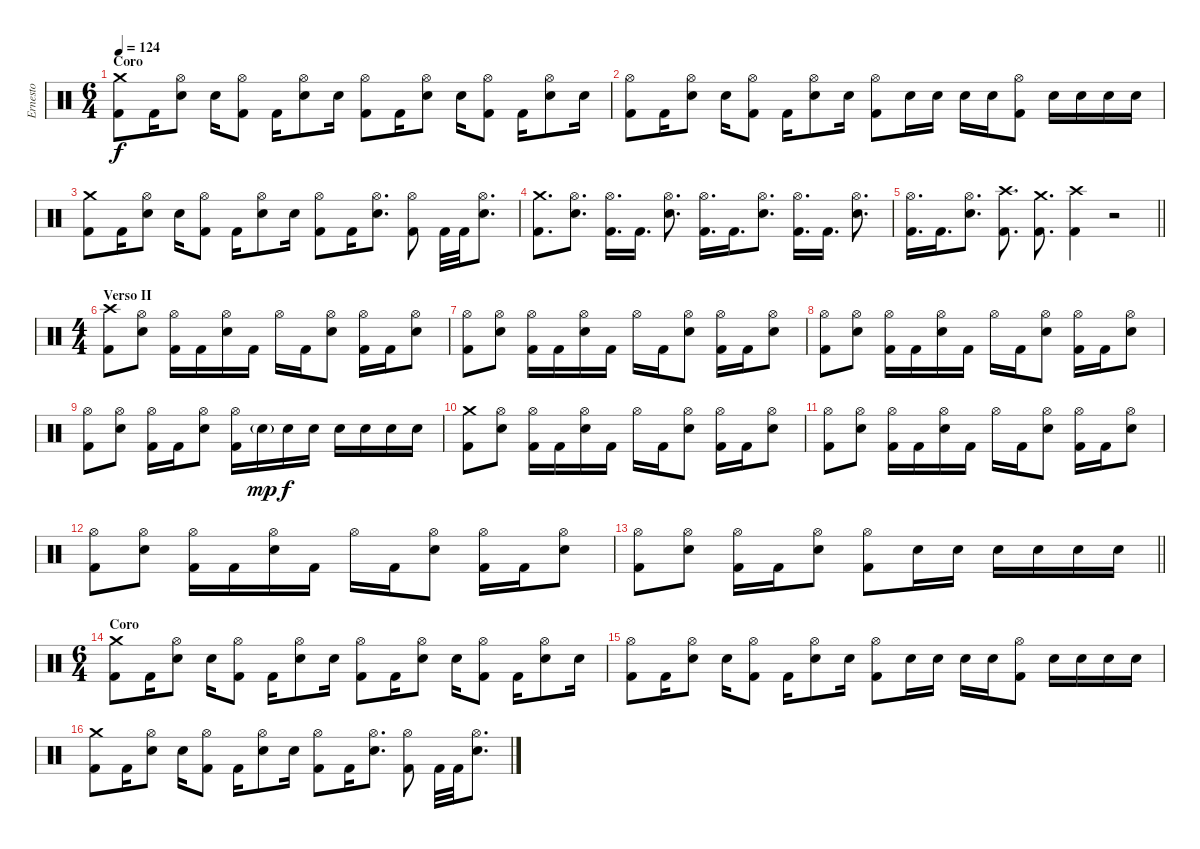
\track ("Ernesto" "Ernesto") {instrument percussion}
\staff
\articulation defaults
\ts (6 4)
\section ("" "Coro")
\tempo 124
\clef neutral
\ks c
("Crash medium (hit)" "Kick (hit) 2").8{dy f} "Kick (hit) 2".16 ("Hi-Hat (open)" "Electric Snare (hit)").8 "Electric Snare (hit)".16 ("Hi-Hat (open)" "Kick (hit) 2").8 "Kick (hit) 2".16 ("Hi-Hat (open)" "Electric Snare (hit)").8 "Electric Snare (hit)".16 ("Hi-Hat (open)" "Kick (hit) 2").8 "Kick (hit) 2".16 ("Hi-Hat (open)" "Electric Snare (hit)").8 "Electric Snare (hit)".16 ("Hi-Hat (open)" "Kick (hit) 2").8 "Kick (hit) 2".16 ("Hi-Hat (open)" "Electric Snare (hit)").8 "Electric Snare (hit)".16 |
("Hi-Hat (open)" "Kick (hit) 2").8 "Kick (hit) 2".16 ("Hi-Hat (open)" "Electric Snare (hit)").8 "Electric Snare (hit)".16 ("Hi-Hat (open)" "Kick (hit) 2").8 "Kick (hit) 2".16 ("Hi-Hat (open)" "Electric Snare (hit)").8 "Electric Snare (hit)".16 ("Hi-Hat (open)" "Kick (hit) 2").8 "Electric Snare (hit)".16 "Electric Snare (hit)".16 "Electric Snare (hit)".16 "Electric Snare (hit)".16 ("Hi-Hat (open)" "Kick (hit) 2").8 "Electric Snare (hit)".16 "Electric Snare (hit)".16 "Electric Snare (hit)".16 "Electric Snare (hit)".16 |
("Crash medium (hit)" "Kick (hit) 2").8 "Kick (hit) 2".16 ("Hi-Hat (open)" "Electric Snare (hit)").8 "Electric Snare (hit)".16 ("Hi-Hat (open)" "Kick (hit) 2").8 "Kick (hit) 2".16 ("Hi-Hat (open)" "Electric Snare (hit)").8 "Electric Snare (hit)".16 ("Hi-Hat (open)" "Kick (hit) 2").8 "Kick (hit) 2".16 ("Hi-Hat (open)" "Electric Snare (hit)").8{d} ("Hi-Hat (open)" "Kick (hit) 2").8 "Kick (hit) 2".32 "Kick (hit) 2".32 ("Hi-Hat (open)" "Electric Snare (hit)").8{d} |
("Crash medium (hit)" "Kick (hit) 2").8{d} ("Hi-Hat (open)" "Electric Snare (hit)").8{d} ("Hi-Hat (open)" "Kick (hit) 2").16{d} "Kick (hit) 2".16{d} ("Hi-Hat (open)" "Electric Snare (hit)").8{d} ("Hi-Hat (open)" "Kick (hit) 2").16{d} "Kick (hit) 2".16{d} ("Hi-Hat (open)" "Electric Snare (hit)").8{d} ("Hi-Hat (open)" "Kick (hit) 2").16{d} "Kick (hit) 2".16{d} ("Hi-Hat (open)" "Electric Snare (hit)").8{d} |
\barLineRight lightlight
("Hi-Hat (open)" "Kick (hit) 2").16{d} "Kick (hit) 2".16{d} ("Hi-Hat (open)" "Electric Snare (hit)").8{d} ("Crash high (hit)" "Kick (hit) 2").8{d} ("Crash medium (hit)" "Kick (hit) 2").8{d} ("Crash high (hit)" "Kick (hit) 2").4 r.2{volume 0} |
\ts (4 4)
\section ("" "Verso II")
("Crash high (hit)" "Kick (hit) 2").8{volume 16} ("Hi-Hat (open)" "Electric Snare (hit)").8 ("Hi-Hat (open)" "Kick (hit) 2").16 "Kick (hit) 2".16 ("Hi-Hat (open)" "Electric Snare (hit)").16 "Kick (hit) 2".16 "Hi-Hat (open)".16 "Kick (hit) 2".16 ("Hi-Hat (open)" "Electric Snare (hit)").8 ("Hi-Hat (open)" "Kick (hit) 2").16 "Kick (hit) 2".16 ("Hi-Hat (open)" "Electric Snare (hit)").8 |
("Hi-Hat (open)" "Kick (hit) 2").8 ("Hi-Hat (open)" "Electric Snare (hit)").8 ("Hi-Hat (open)" "Kick (hit) 2").16 "Kick (hit) 2".16 ("Hi-Hat (open)" "Electric Snare (hit)").16 "Kick (hit) 2".16 "Hi-Hat (open)".16 "Kick (hit) 2".16 ("Hi-Hat (open)" "Electric Snare (hit)").8 ("Hi-Hat (open)" "Kick (hit) 2").16 "Kick (hit) 2".16 ("Hi-Hat (open)" "Electric Snare (hit)").8 |
("Hi-Hat (open)" "Kick (hit) 2").8 ("Hi-Hat (open)" "Electric Snare (hit)").8 ("Hi-Hat (open)" "Kick (hit) 2").16 "Kick (hit) 2".16 ("Hi-Hat (open)" "Electric Snare (hit)").16 "Kick (hit) 2".16 "Hi-Hat (open)".16 "Kick (hit) 2".16 ("Hi-Hat (open)" "Electric Snare (hit)").8 ("Hi-Hat (open)" "Kick (hit) 2").16 "Kick (hit) 2".16 ("Hi-Hat (open)" "Electric Snare (hit)").8 |
("Hi-Hat (open)" "Kick (hit) 2").8 ("Hi-Hat (open)" "Electric Snare (hit)").8 ("Hi-Hat (open)" "Kick (hit) 2").16 "Kick (hit) 2".16 ("Hi-Hat (open)" "Electric Snare (hit)").8 ("Hi-Hat (open)" "Kick (hit) 2").16 "Electric Snare (hit)"{g}.16{dy mp} "Electric Snare (hit)".16{dy f} "Electric Snare (hit)".16 "Electric Snare (hit)".16 "Electric Snare (hit)".16 "Electric Snare (hit)".16 "Electric Snare (hit)".16 |
("Crash medium (hit)" "Kick (hit) 2").8 ("Hi-Hat (open)" "Electric Snare (hit)").8 ("Hi-Hat (open)" "Kick (hit) 2").16 "Kick (hit) 2".16 ("Hi-Hat (open)" "Electric Snare (hit)").16 "Kick (hit) 2".16 "Hi-Hat (open)".16 "Kick (hit) 2".16 ("Hi-Hat (open)" "Electric Snare (hit)").8 ("Hi-Hat (open)" "Kick (hit) 2").16 "Kick (hit) 2".16 ("Hi-Hat (open)" "Electric Snare (hit)").8 |
("Hi-Hat (open)" "Kick (hit) 2").8 ("Hi-Hat (open)" "Electric Snare (hit)").8 ("Hi-Hat (open)" "Kick (hit) 2").16 "Kick (hit) 2".16 ("Hi-Hat (open)" "Electric Snare (hit)").16 "Kick (hit) 2".16 "Hi-Hat (open)".16 "Kick (hit) 2".16 ("Hi-Hat (open)" "Electric Snare (hit)").8 ("Hi-Hat (open)" "Kick (hit) 2").16 "Kick (hit) 2".16 ("Hi-Hat (open)" "Electric Snare (hit)").8 |
("Hi-Hat (open)" "Kick (hit) 2").8 ("Hi-Hat (open)" "Electric Snare (hit)").8 ("Hi-Hat (open)" "Kick (hit) 2").16 "Kick (hit) 2".16 ("Hi-Hat (open)" "Electric Snare (hit)").16 "Kick (hit) 2".16 "Hi-Hat (open)".16 "Kick (hit) 2".16 ("Hi-Hat (open)" "Electric Snare (hit)").8 ("Hi-Hat (open)" "Kick (hit) 2").16 "Kick (hit) 2".16 ("Hi-Hat (open)" "Electric Snare (hit)").8 |
\barLineRight lightlight
("Hi-Hat (open)" "Kick (hit) 2").8 ("Hi-Hat (open)" "Electric Snare (hit)").8 ("Hi-Hat (open)" "Kick (hit) 2").16 "Kick (hit) 2".16 ("Hi-Hat (open)" "Electric Snare (hit)").8 ("Hi-Hat (open)" "Kick (hit) 2").8 "Electric Snare (hit)".16 "Electric Snare (hit)".16 "Electric Snare (hit)".16 "Electric Snare (hit)".16 "Electric Snare (hit)".16 "Electric Snare (hit)".16 |
\ts (6 4)
\section ("" "Coro")
("Crash medium (hit)" "Kick (hit) 2").8 "Kick (hit) 2".16 ("Hi-Hat (open)" "Electric Snare (hit)").8 "Electric Snare (hit)".16 ("Hi-Hat (open)" "Kick (hit) 2").8 "Kick (hit) 2".16 ("Hi-Hat (open)" "Electric Snare (hit)").8 "Electric Snare (hit)".16 ("Hi-Hat (open)" "Kick (hit) 2").8 "Kick (hit) 2".16 ("Hi-Hat (open)" "Electric Snare (hit)").8 "Electric Snare (hit)".16 ("Hi-Hat (open)" "Kick (hit) 2").8 "Kick (hit) 2".16 ("Hi-Hat (open)" "Electric Snare (hit)").8 "Electric Snare (hit)".16 |
("Hi-Hat (open)" "Kick (hit) 2").8 "Kick (hit) 2".16 ("Hi-Hat (open)" "Electric Snare (hit)").8 "Electric Snare (hit)".16 ("Hi-Hat (open)" "Kick (hit) 2").8 "Kick (hit) 2".16 ("Hi-Hat (open)" "Electric Snare (hit)").8 "Electric Snare (hit)".16 ("Hi-Hat (open)" "Kick (hit) 2").8 "Electric Snare (hit)".16 "Electric Snare (hit)".16 "Electric Snare (hit)".16 "Electric Snare (hit)".16 ("Hi-Hat (open)" "Kick (hit) 2").8 "Electric Snare (hit)".16 "Electric Snare (hit)".16 "Electric Snare (hit)".16 "Electric Snare (hit)".16 |
("Crash medium (hit)" "Kick (hit) 2").8 "Kick (hit) 2".16 ("Hi-Hat (open)" "Electric Snare (hit)").8 "Electric Snare (hit)".16 ("Hi-Hat (open)" "Kick (hit) 2").8 "Kick (hit) 2".16 ("Hi-Hat (open)" "Electric Snare (hit)").8 "Electric Snare (hit)".16 ("Hi-Hat (open)" "Kick (hit) 2").8 "Kick (hit) 2".16 ("Hi-Hat (open)" "Electric Snare (hit)").8{d} ("Hi-Hat (open)" "Kick (hit) 2").8 "Kick (hit) 2".32 "Kick (hit) 2".32 ("Hi-Hat (open)" "Electric Snare (hit)").8{d}
